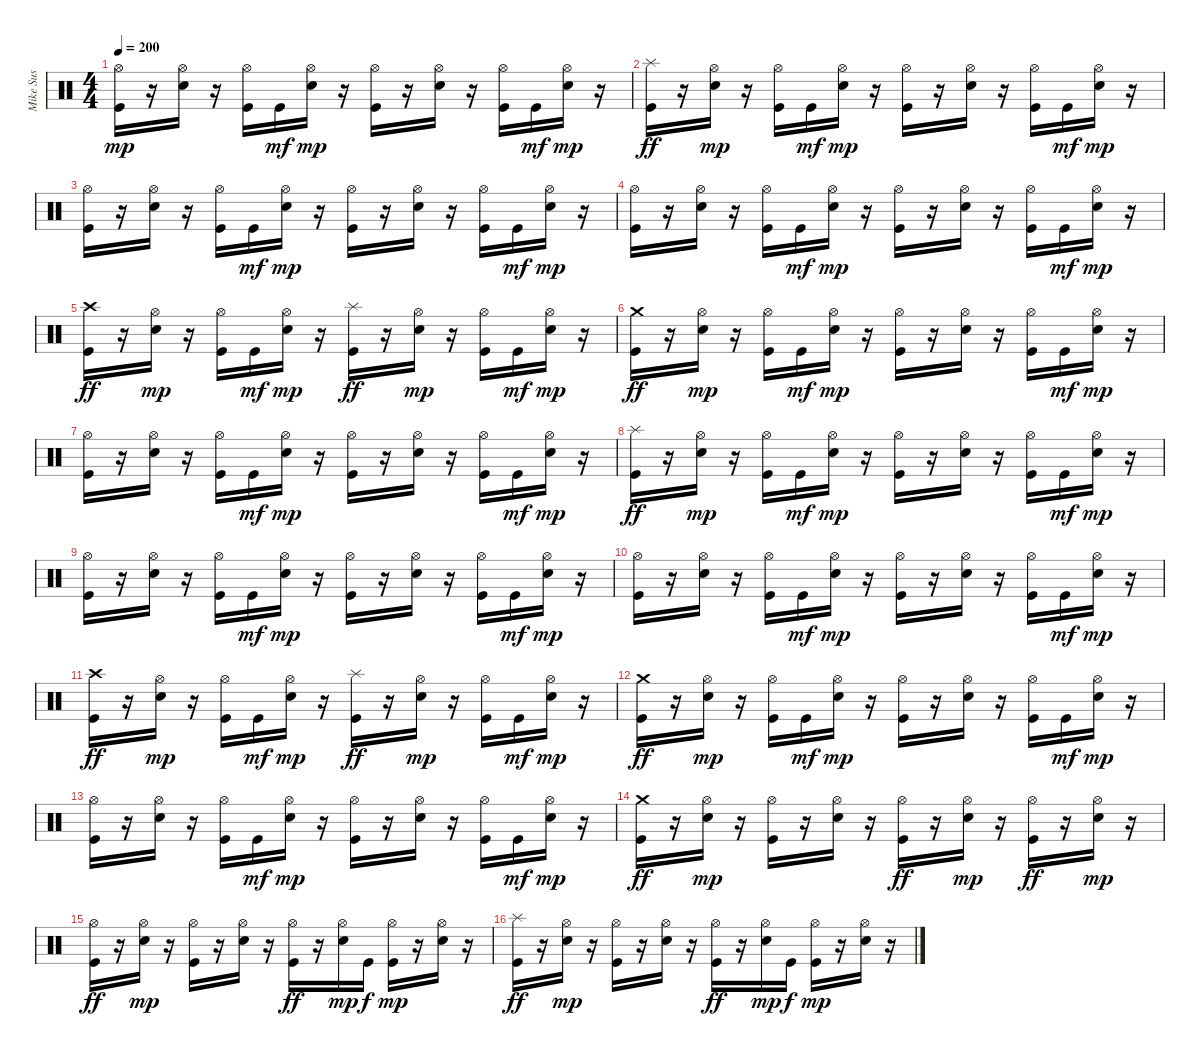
\track ("Mike Sus" "Mike Sus") {instrument percussion}
\staff {score}
\articulation defaults
\ts (4 4)
\tempo 200
\clef neutral
\ks c
("Kick (hit)" "Hi-Hat (open)").16{dy mp} r.16 ("Snare (hit) 2" "Hi-Hat (open)").16 r.16 ("Kick (hit)" "Hi-Hat (open)").16 "Kick (hit)".16{dy mf} ("Snare (hit) 2" "Hi-Hat (open)").16{dy mp} r.16 ("Kick (hit)" "Hi-Hat (open)").16 r.16 ("Snare (hit) 2" "Hi-Hat (open)").16 r.16 ("Kick (hit)" "Hi-Hat (open)").16 "Kick (hit)".16{dy mf} ("Snare (hit) 2" "Hi-Hat (open)").16{dy mp} r.16 |
("Kick (hit)" "Splash (hit)").16{dy ff} r.16 ("Snare (hit) 2" "Hi-Hat (open)").16{dy mp} r.16 ("Kick (hit)" "Hi-Hat (open)").16 "Kick (hit)".16{dy mf} ("Snare (hit) 2" "Hi-Hat (open)").16{dy mp} r.16 ("Kick (hit)" "Hi-Hat (open)").16 r.16 ("Snare (hit) 2" "Hi-Hat (open)").16 r.16 ("Kick (hit)" "Hi-Hat (open)").16 "Kick (hit)".16{dy mf} ("Snare (hit) 2" "Hi-Hat (open)").16{dy mp} r.16 |
("Kick (hit)" "Hi-Hat (open)").16 r.16 ("Snare (hit) 2" "Hi-Hat (open)").16 r.16 ("Kick (hit)" "Hi-Hat (open)").16 "Kick (hit)".16{dy mf} ("Snare (hit) 2" "Hi-Hat (open)").16{dy mp} r.16 ("Kick (hit)" "Hi-Hat (open)").16 r.16 ("Snare (hit) 2" "Hi-Hat (open)").16 r.16 ("Kick (hit)" "Hi-Hat (open)").16 "Kick (hit)".16{dy mf} ("Snare (hit) 2" "Hi-Hat (open)").16{dy mp} r.16 |
("Kick (hit)" "Hi-Hat (open)").16 r.16 ("Snare (hit) 2" "Hi-Hat (open)").16 r.16 ("Kick (hit)" "Hi-Hat (open)").16 "Kick (hit)".16{dy mf} ("Snare (hit) 2" "Hi-Hat (open)").16{dy mp} r.16 ("Kick (hit)" "Hi-Hat (open)").16 r.16 ("Snare (hit) 2" "Hi-Hat (open)").16 r.16 ("Kick (hit)" "Hi-Hat (open)").16 "Kick (hit)".16{dy mf} ("Snare (hit) 2" "Hi-Hat (open)").16{dy mp} r.16 |
("Kick (hit)" "Crash high (hit)").16{dy ff} r.16 ("Snare (hit) 2" "Hi-Hat (open)").16{dy mp} r.16 ("Kick (hit)" "Hi-Hat (open)").16 "Kick (hit)".16{dy mf} ("Snare (hit) 2" "Hi-Hat (open)").16{dy mp} r.16 ("Kick (hit)" "Splash (hit)").16{dy ff} r.16 ("Snare (hit) 2" "Hi-Hat (open)").16{dy mp} r.16 ("Kick (hit)" "Hi-Hat (open)").16 "Kick (hit)".16{dy mf} ("Snare (hit) 2" "Hi-Hat (open)").16{dy mp} r.16 |
("Kick (hit)" "Crash medium (hit)").16{dy ff} r.16 ("Snare (hit) 2" "Hi-Hat (open)").16{dy mp} r.16 ("Kick (hit)" "Hi-Hat (open)").16 "Kick (hit)".16{dy mf} ("Snare (hit) 2" "Hi-Hat (open)").16{dy mp} r.16 ("Kick (hit)" "Hi-Hat (open)").16 r.16 ("Snare (hit) 2" "Hi-Hat (open)").16 r.16 ("Kick (hit)" "Hi-Hat (open)").16 "Kick (hit)".16{dy mf} ("Snare (hit) 2" "Hi-Hat (open)").16{dy mp} r.16 |
("Kick (hit)" "Hi-Hat (open)").16 r.16 ("Snare (hit) 2" "Hi-Hat (open)").16 r.16 ("Kick (hit)" "Hi-Hat (open)").16 "Kick (hit)".16{dy mf} ("Snare (hit) 2" "Hi-Hat (open)").16{dy mp} r.16 ("Kick (hit)" "Hi-Hat (open)").16 r.16 ("Snare (hit) 2" "Hi-Hat (open)").16 r.16 ("Kick (hit)" "Hi-Hat (open)").16 "Kick (hit)".16{dy mf} ("Snare (hit) 2" "Hi-Hat (open)").16{dy mp} r.16 |
("Kick (hit)" "Splash (hit)").16{dy ff} r.16 ("Snare (hit) 2" "Hi-Hat (open)").16{dy mp} r.16 ("Kick (hit)" "Hi-Hat (open)").16 "Kick (hit)".16{dy mf} ("Snare (hit) 2" "Hi-Hat (open)").16{dy mp} r.16 ("Kick (hit)" "Hi-Hat (open)").16 r.16 ("Snare (hit) 2" "Hi-Hat (open)").16 r.16 ("Kick (hit)" "Hi-Hat (open)").16 "Kick (hit)".16{dy mf} ("Snare (hit) 2" "Hi-Hat (open)").16{dy mp} r.16 |
("Kick (hit)" "Hi-Hat (open)").16 r.16 ("Snare (hit) 2" "Hi-Hat (open)").16 r.16 ("Kick (hit)" "Hi-Hat (open)").16 "Kick (hit)".16{dy mf} ("Snare (hit) 2" "Hi-Hat (open)").16{dy mp} r.16 ("Kick (hit)" "Hi-Hat (open)").16 r.16 ("Snare (hit) 2" "Hi-Hat (open)").16 r.16 ("Kick (hit)" "Hi-Hat (open)").16 "Kick (hit)".16{dy mf} ("Snare (hit) 2" "Hi-Hat (open)").16{dy mp} r.16 |
("Kick (hit)" "Hi-Hat (open)").16 r.16 ("Snare (hit) 2" "Hi-Hat (open)").16 r.16 ("Kick (hit)" "Hi-Hat (open)").16 "Kick (hit)".16{dy mf} ("Snare (hit) 2" "Hi-Hat (open)").16{dy mp} r.16 ("Kick (hit)" "Hi-Hat (open)").16 r.16 ("Snare (hit) 2" "Hi-Hat (open)").16 r.16 ("Kick (hit)" "Hi-Hat (open)").16 "Kick (hit)".16{dy mf} ("Snare (hit) 2" "Hi-Hat (open)").16{dy mp} r.16 |
("Kick (hit)" "Crash high (hit)").16{dy ff} r.16 ("Snare (hit) 2" "Hi-Hat (open)").16{dy mp} r.16 ("Kick (hit)" "Hi-Hat (open)").16 "Kick (hit)".16{dy mf} ("Snare (hit) 2" "Hi-Hat (open)").16{dy mp} r.16 ("Kick (hit)" "Splash (hit)").16{dy ff} r.16 ("Snare (hit) 2" "Hi-Hat (open)").16{dy mp} r.16 ("Kick (hit)" "Hi-Hat (open)").16 "Kick (hit)".16{dy mf} ("Snare (hit) 2" "Hi-Hat (open)").16{dy mp} r.16 |
("Kick (hit)" "Crash medium (hit)").16{dy ff} r.16 ("Snare (hit) 2" "Hi-Hat (open)").16{dy mp} r.16 ("Kick (hit)" "Hi-Hat (open)").16 "Kick (hit)".16{dy mf} ("Snare (hit) 2" "Hi-Hat (open)").16{dy mp} r.16 ("Kick (hit)" "Hi-Hat (open)").16 r.16 ("Snare (hit) 2" "Hi-Hat (open)").16 r.16 ("Kick (hit)" "Hi-Hat (open)").16 "Kick (hit)".16{dy mf} ("Snare (hit) 2" "Hi-Hat (open)").16{dy mp} r.16 |
("Kick (hit)" "Hi-Hat (open)").16 r.16 ("Snare (hit) 2" "Hi-Hat (open)").16 r.16 ("Kick (hit)" "Hi-Hat (open)").16 "Kick (hit)".16{dy mf} ("Snare (hit) 2" "Hi-Hat (open)").16{dy mp} r.16 ("Kick (hit)" "Hi-Hat (open)").16 r.16 ("Snare (hit) 2" "Hi-Hat (open)").16 r.16 ("Kick (hit)" "Hi-Hat (open)").16 "Kick (hit)".16{dy mf} ("Snare (hit) 2" "Hi-Hat (open)").16{dy mp} r.16 |
("Kick (hit)" "Crash medium (hit)").16{dy ff} r.16 ("Snare (hit) 2" "Hi-Hat (open)").16{dy mp} r.16 ("Kick (hit)" "Hi-Hat (open)").16 r.16 ("Snare (hit) 2" "Hi-Hat (open)").16 r.16 ("Hi-Hat (open)" "Kick (hit)").16{dy ff} r.16 ("Snare (hit) 2" "Hi-Hat (open)").16{dy mp} r.16 ("Hi-Hat (open)" "Kick (hit)").16{dy ff} r.16 ("Snare (hit) 2" "Hi-Hat (open)").16{dy mp} r.16 |
("Hi-Hat (open)" "Kick (hit)").16{dy ff} r.16 ("Snare (hit) 2" "Hi-Hat (open)").16{dy mp} r.16 ("Kick (hit)" "Hi-Hat (open)").16 r.16 ("Snare (hit) 2" "Hi-Hat (open)").16 r.16 ("Hi-Hat (open)" "Kick (hit)").16{dy ff} r.16 ("Snare (hit) 2" "Hi-Hat (open)").16{dy mp} "Kick (hit)".16{dy f} ("Hi-Hat (open)" "Kick (hit)").16{dy mp} r.16 ("Snare (hit) 2" "Hi-Hat (open)").16 r.16 |
("Kick (hit)" "Splash (hit)").16{dy ff} r.16 ("Snare (hit) 2" "Hi-Hat (open)").16{dy mp} r.16 ("Kick (hit)" "Hi-Hat (open)").16 r.16 ("Snare (hit) 2" "Hi-Hat (open)").16 r.16 ("Hi-Hat (open)" "Kick (hit)").16{dy ff} r.16 ("Snare (hit) 2" "Hi-Hat (open)").16{dy mp} "Kick (hit)".16{dy f} ("Hi-Hat (open)" "Kick (hit)").16{dy mp} r.16 ("Snare (hit) 2" "Hi-Hat (open)").16 r.16
